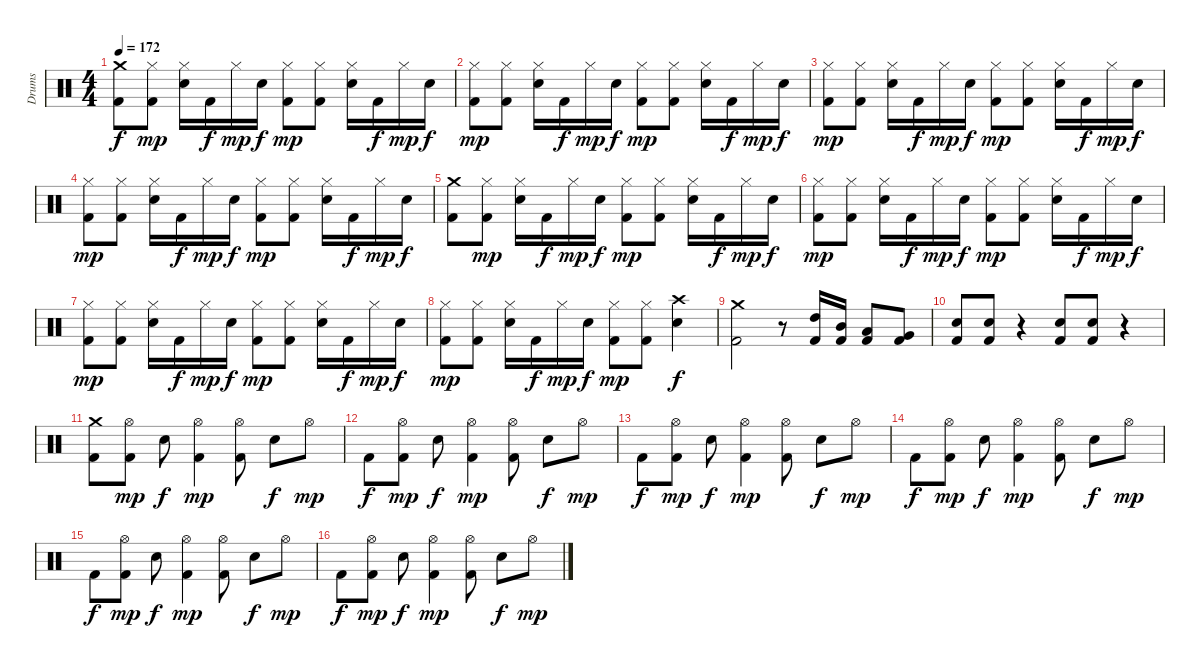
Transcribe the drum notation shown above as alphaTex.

\track ("Drums" "Drums") {instrument percussion}
\staff {score}
\articulation defaults
\ts (4 4)
\tempo 172
\clef neutral
\ks c
("Crash medium (hit)" "Kick (hit) 2").8{dy f} ("Hi-Hat (closed)" "Kick (hit) 2").8{dy mp} ("Hi-Hat (closed)" "Snare (hit) 2").16 "Kick (hit) 2".16{dy f} "Hi-Hat (closed)".16{dy mp} "Snare (hit) 2".16{dy f} ("Hi-Hat (closed)" "Kick (hit) 2").8{dy mp} ("Hi-Hat (closed)" "Kick (hit) 2").8 ("Hi-Hat (closed)" "Snare (hit) 2").16 "Kick (hit) 2".16{dy f} "Hi-Hat (closed)".16{dy mp} "Snare (hit) 2".16{dy f} |
("Hi-Hat (closed)" "Kick (hit) 2").8{dy mp} ("Hi-Hat (closed)" "Kick (hit) 2").8 ("Hi-Hat (closed)" "Snare (hit) 2").16 "Kick (hit) 2".16{dy f} "Hi-Hat (closed)".16{dy mp} "Snare (hit) 2".16{dy f} ("Hi-Hat (closed)" "Kick (hit) 2").8{dy mp} ("Hi-Hat (closed)" "Kick (hit) 2").8 ("Hi-Hat (closed)" "Snare (hit) 2").16 "Kick (hit) 2".16{dy f} "Hi-Hat (closed)".16{dy mp} "Snare (hit) 2".16{dy f} |
("Hi-Hat (closed)" "Kick (hit) 2").8{dy mp} ("Hi-Hat (closed)" "Kick (hit) 2").8 ("Hi-Hat (closed)" "Snare (hit) 2").16 "Kick (hit) 2".16{dy f} "Hi-Hat (closed)".16{dy mp} "Snare (hit) 2".16{dy f} ("Hi-Hat (closed)" "Kick (hit) 2").8{dy mp} ("Hi-Hat (closed)" "Kick (hit) 2").8 ("Hi-Hat (closed)" "Snare (hit) 2").16 "Kick (hit) 2".16{dy f} "Hi-Hat (closed)".16{dy mp} "Snare (hit) 2".16{dy f} |
("Hi-Hat (closed)" "Kick (hit) 2").8{dy mp} ("Hi-Hat (closed)" "Kick (hit) 2").8 ("Hi-Hat (closed)" "Snare (hit) 2").16 "Kick (hit) 2".16{dy f} "Hi-Hat (closed)".16{dy mp} "Snare (hit) 2".16{dy f} ("Hi-Hat (closed)" "Kick (hit) 2").8{dy mp} ("Hi-Hat (closed)" "Kick (hit) 2").8 ("Hi-Hat (closed)" "Snare (hit) 2").16 "Kick (hit) 2".16{dy f} "Hi-Hat (closed)".16{dy mp} "Snare (hit) 2".16{dy f} |
("Crash medium (hit)" "Kick (hit) 2").8 ("Hi-Hat (closed)" "Kick (hit) 2").8{dy mp} ("Hi-Hat (closed)" "Snare (hit) 2").16 "Kick (hit) 2".16{dy f} "Hi-Hat (closed)".16{dy mp} "Snare (hit) 2".16{dy f} ("Hi-Hat (closed)" "Kick (hit) 2").8{dy mp} ("Hi-Hat (closed)" "Kick (hit) 2").8 ("Hi-Hat (closed)" "Snare (hit) 2").16 "Kick (hit) 2".16{dy f} "Hi-Hat (closed)".16{dy mp} "Snare (hit) 2".16{dy f} |
("Hi-Hat (closed)" "Kick (hit) 2").8{dy mp} ("Hi-Hat (closed)" "Kick (hit) 2").8 ("Hi-Hat (closed)" "Snare (hit) 2").16 "Kick (hit) 2".16{dy f} "Hi-Hat (closed)".16{dy mp} "Snare (hit) 2".16{dy f} ("Hi-Hat (closed)" "Kick (hit) 2").8{dy mp} ("Hi-Hat (closed)" "Kick (hit) 2").8 ("Hi-Hat (closed)" "Snare (hit) 2").16 "Kick (hit) 2".16{dy f} "Hi-Hat (closed)".16{dy mp} "Snare (hit) 2".16{dy f} |
("Hi-Hat (closed)" "Kick (hit) 2").8{dy mp} ("Hi-Hat (closed)" "Kick (hit) 2").8 ("Hi-Hat (closed)" "Snare (hit) 2").16 "Kick (hit) 2".16{dy f} "Hi-Hat (closed)".16{dy mp} "Snare (hit) 2".16{dy f} ("Hi-Hat (closed)" "Kick (hit) 2").8{dy mp} ("Hi-Hat (closed)" "Kick (hit) 2").8 ("Hi-Hat (closed)" "Snare (hit) 2").16 "Kick (hit) 2".16{dy f} "Hi-Hat (closed)".16{dy mp} "Snare (hit) 2".16{dy f} |
("Hi-Hat (closed)" "Kick (hit) 2").8{dy mp} ("Hi-Hat (closed)" "Kick (hit) 2").8 ("Hi-Hat (closed)" "Snare (hit) 2").16 "Kick (hit) 2".16{dy f} "Hi-Hat (closed)".16{dy mp} "Snare (hit) 2".16{dy f} ("Hi-Hat (closed)" "Kick (hit) 2").8{dy mp} ("Hi-Hat (closed)" "Kick (hit) 2").8 ("Crash high (hit)" "Snare (hit) 2").4{dy f} |
("Crash medium (hit)" "Kick (hit) 2").2 r.8 ("High Tom (hit)" "Kick (hit) 2").16 ("Mid Tom (hit)" "Kick (hit) 2").16 ("Low Tom (hit)" "Kick (hit) 2").8 ("Very Low Tom (hit)" "Kick (hit) 2").8 |
("Snare (hit) 2" "Kick (hit) 2").8 ("Snare (hit) 2" "Kick (hit) 2").8 r.4 ("Snare (hit) 2" "Kick (hit) 2").8 ("Snare (hit) 2" "Kick (hit) 2").8 r.4 |
("Crash medium (hit)" "Kick (hit) 2").8 ("Hi-Hat (open)" "Kick (hit) 2").8{dy mp} "Snare (hit) 2".8{dy f} ("Hi-Hat (open)" "Kick (hit) 2").4{dy mp} ("Hi-Hat (open)" "Kick (hit) 2").8 "Snare (hit) 2".8{dy f} "Hi-Hat (open)".8{dy mp} |
"Kick (hit) 2".8{dy f} ("Hi-Hat (open)" "Kick (hit) 2").8{dy mp} "Snare (hit) 2".8{dy f} ("Hi-Hat (open)" "Kick (hit) 2").4{dy mp} ("Hi-Hat (open)" "Kick (hit) 2").8 "Snare (hit) 2".8{dy f} "Hi-Hat (open)".8{dy mp} |
"Kick (hit) 2".8{dy f} ("Hi-Hat (open)" "Kick (hit) 2").8{dy mp} "Snare (hit) 2".8{dy f} ("Hi-Hat (open)" "Kick (hit) 2").4{dy mp} ("Hi-Hat (open)" "Kick (hit) 2").8 "Snare (hit) 2".8{dy f} "Hi-Hat (open)".8{dy mp} |
"Kick (hit) 2".8{dy f} ("Hi-Hat (open)" "Kick (hit) 2").8{dy mp} "Snare (hit) 2".8{dy f} ("Hi-Hat (open)" "Kick (hit) 2").4{dy mp} ("Hi-Hat (open)" "Kick (hit) 2").8 "Snare (hit) 2".8{dy f} "Hi-Hat (open)".8{dy mp} |
"Kick (hit) 2".8{dy f} ("Hi-Hat (open)" "Kick (hit) 2").8{dy mp} "Snare (hit) 2".8{dy f} ("Hi-Hat (open)" "Kick (hit) 2").4{dy mp} ("Hi-Hat (open)" "Kick (hit) 2").8 "Snare (hit) 2".8{dy f} "Hi-Hat (open)".8{dy mp} |
"Kick (hit) 2".8{dy f} ("Hi-Hat (open)" "Kick (hit) 2").8{dy mp} "Snare (hit) 2".8{dy f} ("Hi-Hat (open)" "Kick (hit) 2").4{dy mp} ("Hi-Hat (open)" "Kick (hit) 2").8 "Snare (hit) 2".8{dy f} "Hi-Hat (open)".8{dy mp}
